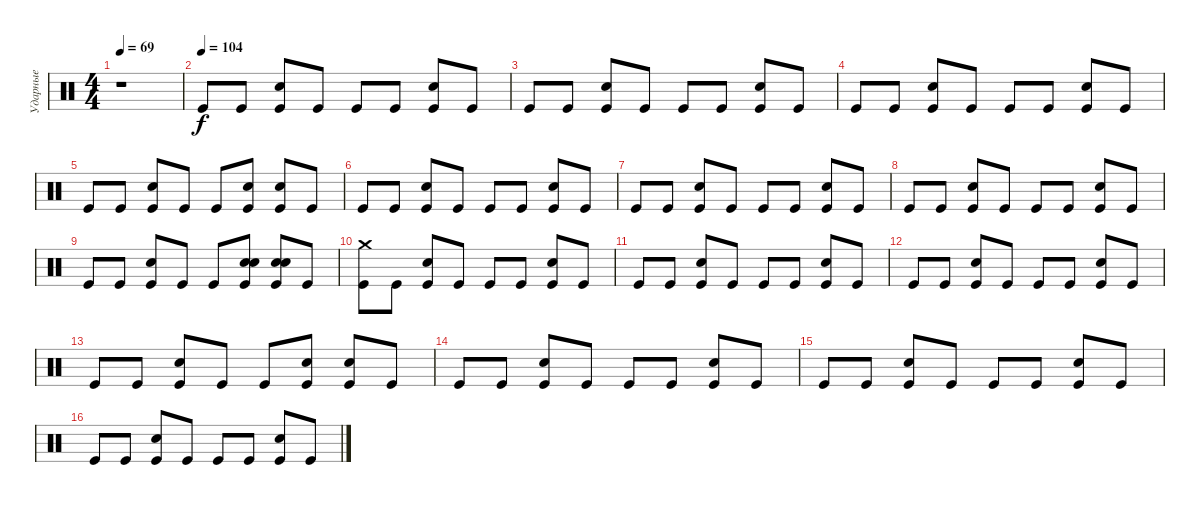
\track ("Ударные" "Ударные") {instrument percussion}
\staff {score}
\articulation defaults
\ts (4 4)
\tempo 69
\clef neutral
\ks c
r.1{dy f} |
\tempo (104)
"Kick (hit)".8 "Kick (hit)".8 ("Snare (hit) 2" "Kick (hit)").8 "Kick (hit)".8 "Kick (hit)".8 "Kick (hit)".8 ("Snare (hit) 2" "Kick (hit)").8 "Kick (hit)".8 |
"Kick (hit)".8 "Kick (hit)".8 ("Snare (hit) 2" "Kick (hit)").8 "Kick (hit)".8 "Kick (hit)".8 "Kick (hit)".8 ("Snare (hit) 2" "Kick (hit)").8 "Kick (hit)".8 |
"Kick (hit)".8 "Kick (hit)".8 ("Snare (hit) 2" "Kick (hit)").8 "Kick (hit)".8 "Kick (hit)".8 "Kick (hit)".8 ("Snare (hit) 2" "Kick (hit)").8 "Kick (hit)".8 |
"Kick (hit)".8 "Kick (hit)".8 ("Snare (hit) 2" "Kick (hit)").8 "Kick (hit)".8 "Kick (hit)".8 ("Snare (hit) 2" "Kick (hit)").8 ("Snare (hit) 2" "Kick (hit)").8 "Kick (hit)".8 |
"Kick (hit)".8 "Kick (hit)".8 ("Snare (hit) 2" "Kick (hit)").8 "Kick (hit)".8 "Kick (hit)".8 "Kick (hit)".8 ("Snare (hit) 2" "Kick (hit)").8 "Kick (hit)".8 |
"Kick (hit)".8 "Kick (hit)".8 ("Snare (hit) 2" "Kick (hit)").8 "Kick (hit)".8 "Kick (hit)".8 "Kick (hit)".8 ("Snare (hit) 2" "Kick (hit)").8 "Kick (hit)".8 |
"Kick (hit)".8 "Kick (hit)".8 ("Snare (hit) 2" "Kick (hit)").8 "Kick (hit)".8 "Kick (hit)".8 "Kick (hit)".8 ("Snare (hit) 2" "Kick (hit)").8 "Kick (hit)".8 |
"Kick (hit)".8 "Kick (hit)".8 ("Snare (hit) 2" "Kick (hit)").8 "Kick (hit)".8 "Kick (hit)".8 ("Snare (hit) 2" "Kick (hit)" "Snare (hit) 2").8 ("Kick (hit)" "Snare (hit) 2" "Snare (hit) 2").8 "Kick (hit)".8 |
("Crash medium (hit)" "Kick (hit)").8 "Kick (hit)".8 ("Snare (hit) 2" "Kick (hit)").8 "Kick (hit)".8 "Kick (hit)".8 "Kick (hit)".8 ("Snare (hit) 2" "Kick (hit)").8 "Kick (hit)".8 |
"Kick (hit)".8 "Kick (hit)".8 ("Snare (hit) 2" "Kick (hit)").8 "Kick (hit)".8 "Kick (hit)".8 "Kick (hit)".8 ("Snare (hit) 2" "Kick (hit)").8 "Kick (hit)".8 |
"Kick (hit)".8 "Kick (hit)".8 ("Snare (hit) 2" "Kick (hit)").8 "Kick (hit)".8 "Kick (hit)".8 "Kick (hit)".8 ("Snare (hit) 2" "Kick (hit)").8 "Kick (hit)".8 |
"Kick (hit)".8 "Kick (hit)".8 ("Snare (hit) 2" "Kick (hit)").8 "Kick (hit)".8 "Kick (hit)".8 ("Snare (hit) 2" "Kick (hit)").8 ("Kick (hit)" "Snare (hit) 2").8 "Kick (hit)".8 |
"Kick (hit)".8 "Kick (hit)".8 ("Snare (hit) 2" "Kick (hit)").8 "Kick (hit)".8 "Kick (hit)".8 "Kick (hit)".8 ("Snare (hit) 2" "Kick (hit)").8 "Kick (hit)".8 |
"Kick (hit)".8 "Kick (hit)".8 ("Snare (hit) 2" "Kick (hit)").8 "Kick (hit)".8 "Kick (hit)".8 "Kick (hit)".8 ("Snare (hit) 2" "Kick (hit)").8 "Kick (hit)".8 |
"Kick (hit)".8 "Kick (hit)".8 ("Snare (hit) 2" "Kick (hit)").8 "Kick (hit)".8 "Kick (hit)".8 "Kick (hit)".8 ("Snare (hit) 2" "Kick (hit)").8 "Kick (hit)".8
